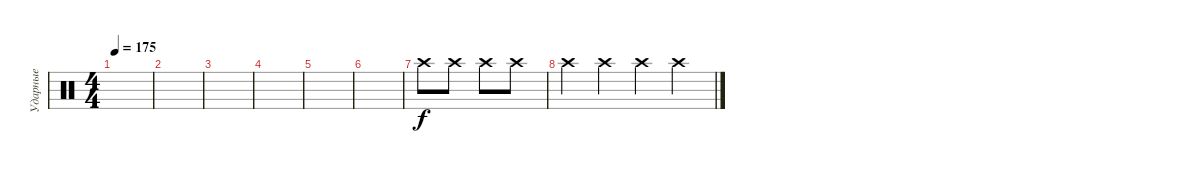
\track ("Ударные" "Ударные") {instrument percussion}
\staff {score}
\articulation defaults
\ts (4 4)
\tempo 175
\clef neutral
\ks c
|
|
|
|
|
|
"Crash high (hit)".8 "Crash high (hit)".8 "Crash high (hit)".8 "Crash high (hit)".8 |
"Crash high (hit)".4 "Crash high (hit)".4 "Crash high (hit)".4 "Crash high (hit)".4
